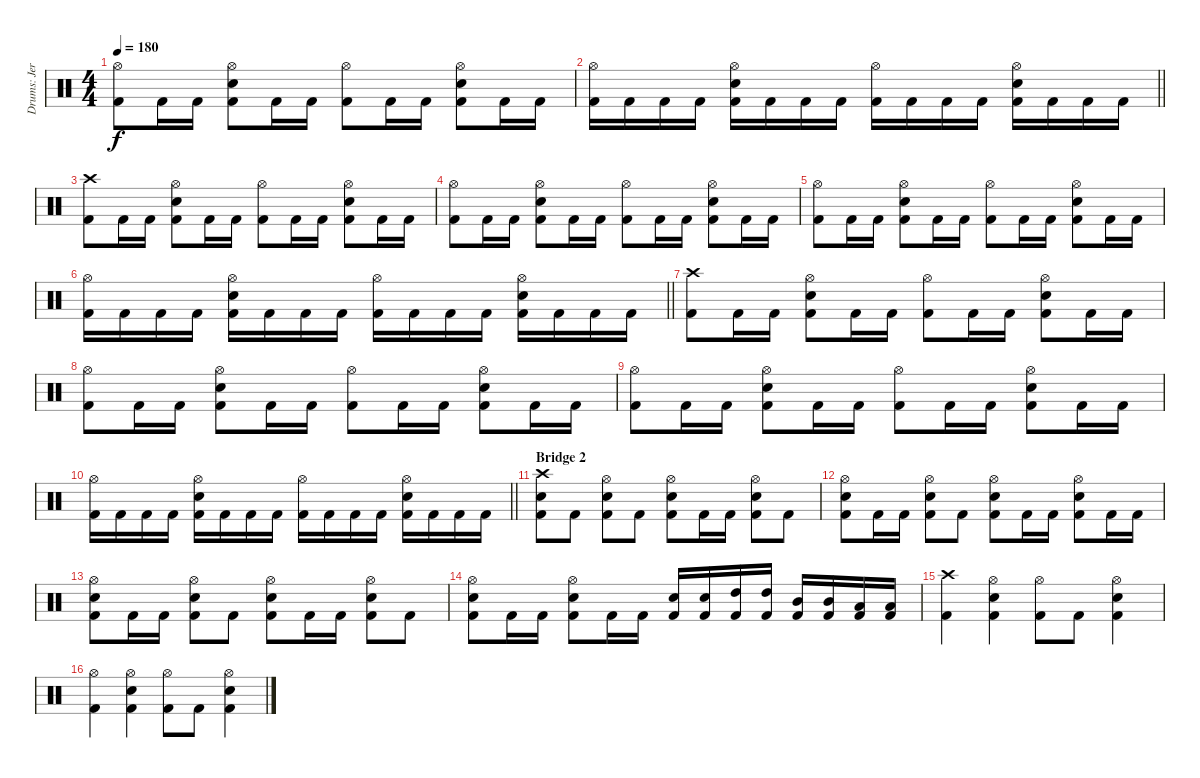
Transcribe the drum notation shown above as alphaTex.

\track ("Drums: Jere Luokkamäki" "Drums: Jer") {instrument percussion}
\staff {score}
\articulation defaults
\ts (4 4)
\tempo 180
\clef neutral
\ks aminor
("Hi-Hat (open)" "Kick (hit) 2").8{dy f} "Kick (hit) 2".16 "Kick (hit) 2".16 ("Hi-Hat (open)" "Electric Snare (hit)" "Kick (hit) 2").8 "Kick (hit) 2".16 "Kick (hit) 2".16 ("Hi-Hat (open)" "Kick (hit) 2").8 "Kick (hit) 2".16 "Kick (hit) 2".16 ("Hi-Hat (open)" "Electric Snare (hit)" "Kick (hit) 2").8 "Kick (hit) 2".16 "Kick (hit) 2".16 |
\barLineRight lightlight
("Hi-Hat (open)" "Kick (hit) 2").16 "Kick (hit) 2".16 "Kick (hit) 2".16 "Kick (hit) 2".16 ("Hi-Hat (open)" "Electric Snare (hit)" "Kick (hit) 2").16 "Kick (hit) 2".16 "Kick (hit) 2".16 "Kick (hit) 2".16 ("Hi-Hat (open)" "Kick (hit) 2").16 "Kick (hit) 2".16 "Kick (hit) 2".16 "Kick (hit) 2".16 ("Hi-Hat (open)" "Electric Snare (hit)" "Kick (hit) 2").16 "Kick (hit) 2".16 "Kick (hit) 2".16 "Kick (hit) 2".16 |
("Crash high (hit)" "Kick (hit) 2").8 "Kick (hit) 2".16 "Kick (hit) 2".16 ("Hi-Hat (open)" "Electric Snare (hit)" "Kick (hit) 2").8 "Kick (hit) 2".16 "Kick (hit) 2".16 ("Hi-Hat (open)" "Kick (hit) 2").8 "Kick (hit) 2".16 "Kick (hit) 2".16 ("Hi-Hat (open)" "Electric Snare (hit)" "Kick (hit) 2").8 "Kick (hit) 2".16 "Kick (hit) 2".16 |
("Hi-Hat (open)" "Kick (hit) 2").8 "Kick (hit) 2".16 "Kick (hit) 2".16 ("Hi-Hat (open)" "Electric Snare (hit)" "Kick (hit) 2").8 "Kick (hit) 2".16 "Kick (hit) 2".16 ("Hi-Hat (open)" "Kick (hit) 2").8 "Kick (hit) 2".16 "Kick (hit) 2".16 ("Hi-Hat (open)" "Electric Snare (hit)" "Kick (hit) 2").8 "Kick (hit) 2".16 "Kick (hit) 2".16 |
("Hi-Hat (open)" "Kick (hit) 2").8 "Kick (hit) 2".16 "Kick (hit) 2".16 ("Hi-Hat (open)" "Electric Snare (hit)" "Kick (hit) 2").8 "Kick (hit) 2".16 "Kick (hit) 2".16 ("Hi-Hat (open)" "Kick (hit) 2").8 "Kick (hit) 2".16 "Kick (hit) 2".16 ("Hi-Hat (open)" "Electric Snare (hit)" "Kick (hit) 2").8 "Kick (hit) 2".16 "Kick (hit) 2".16 |
\barLineRight lightlight
("Hi-Hat (open)" "Kick (hit) 2").16 "Kick (hit) 2".16 "Kick (hit) 2".16 "Kick (hit) 2".16 ("Hi-Hat (open)" "Electric Snare (hit)" "Kick (hit) 2").16 "Kick (hit) 2".16 "Kick (hit) 2".16 "Kick (hit) 2".16 ("Hi-Hat (open)" "Kick (hit) 2").16 "Kick (hit) 2".16 "Kick (hit) 2".16 "Kick (hit) 2".16 ("Hi-Hat (open)" "Electric Snare (hit)" "Kick (hit) 2").16 "Kick (hit) 2".16 "Kick (hit) 2".16 "Kick (hit) 2".16 |
("Crash high (hit)" "Kick (hit) 2").8 "Kick (hit) 2".16 "Kick (hit) 2".16 ("Hi-Hat (open)" "Electric Snare (hit)" "Kick (hit) 2").8 "Kick (hit) 2".16 "Kick (hit) 2".16 ("Hi-Hat (open)" "Kick (hit) 2").8 "Kick (hit) 2".16 "Kick (hit) 2".16 ("Hi-Hat (open)" "Electric Snare (hit)" "Kick (hit) 2").8 "Kick (hit) 2".16 "Kick (hit) 2".16 |
("Hi-Hat (open)" "Kick (hit) 2").8 "Kick (hit) 2".16 "Kick (hit) 2".16 ("Hi-Hat (open)" "Electric Snare (hit)" "Kick (hit) 2").8 "Kick (hit) 2".16 "Kick (hit) 2".16 ("Hi-Hat (open)" "Kick (hit) 2").8 "Kick (hit) 2".16 "Kick (hit) 2".16 ("Hi-Hat (open)" "Electric Snare (hit)" "Kick (hit) 2").8 "Kick (hit) 2".16 "Kick (hit) 2".16 |
("Hi-Hat (open)" "Kick (hit) 2").8 "Kick (hit) 2".16 "Kick (hit) 2".16 ("Hi-Hat (open)" "Electric Snare (hit)" "Kick (hit) 2").8 "Kick (hit) 2".16 "Kick (hit) 2".16 ("Hi-Hat (open)" "Kick (hit) 2").8 "Kick (hit) 2".16 "Kick (hit) 2".16 ("Hi-Hat (open)" "Electric Snare (hit)" "Kick (hit) 2").8 "Kick (hit) 2".16 "Kick (hit) 2".16 |
\barLineRight lightlight
("Hi-Hat (open)" "Kick (hit) 2").16 "Kick (hit) 2".16 "Kick (hit) 2".16 "Kick (hit) 2".16 ("Hi-Hat (open)" "Electric Snare (hit)" "Kick (hit) 2").16 "Kick (hit) 2".16 "Kick (hit) 2".16 "Kick (hit) 2".16 ("Hi-Hat (open)" "Kick (hit) 2").16 "Kick (hit) 2".16 "Kick (hit) 2".16 "Kick (hit) 2".16 ("Hi-Hat (open)" "Electric Snare (hit)" "Kick (hit) 2").16 "Kick (hit) 2".16 "Kick (hit) 2".16 "Kick (hit) 2".16 |
\section ("" "Bridge 2")
("Crash high (hit)" "Electric Snare (hit)" "Kick (hit) 2").8 "Kick (hit) 2".8 ("Hi-Hat (open)" "Electric Snare (hit)" "Kick (hit) 2").8 "Kick (hit) 2".8 ("Hi-Hat (open)" "Electric Snare (hit)" "Kick (hit) 2").8 "Kick (hit) 2".16 "Kick (hit) 2".16 ("Hi-Hat (open)" "Electric Snare (hit)" "Kick (hit) 2").8 "Kick (hit) 2".8 |
("Hi-Hat (open)" "Electric Snare (hit)" "Kick (hit) 2").8 "Kick (hit) 2".16 "Kick (hit) 2".16 ("Hi-Hat (open)" "Electric Snare (hit)" "Kick (hit) 2").8 "Kick (hit) 2".8 ("Hi-Hat (open)" "Electric Snare (hit)" "Kick (hit) 2").8 "Kick (hit) 2".16 "Kick (hit) 2".16 ("Hi-Hat (open)" "Electric Snare (hit)" "Kick (hit) 2").8 "Kick (hit) 2".16 "Kick (hit) 2".16 |
("Hi-Hat (open)" "Electric Snare (hit)" "Kick (hit) 2").8 "Kick (hit) 2".16 "Kick (hit) 2".16 ("Hi-Hat (open)" "Electric Snare (hit)" "Kick (hit) 2").8 "Kick (hit) 2".8 ("Hi-Hat (open)" "Electric Snare (hit)" "Kick (hit) 2").8 "Kick (hit) 2".16 "Kick (hit) 2".16 ("Hi-Hat (open)" "Electric Snare (hit)" "Kick (hit) 2").8 "Kick (hit) 2".8 |
("Hi-Hat (open)" "Electric Snare (hit)" "Kick (hit) 2").8 "Kick (hit) 2".16 "Kick (hit) 2".16 ("Hi-Hat (open)" "Electric Snare (hit)" "Kick (hit) 2").8 "Kick (hit) 2".16 "Kick (hit) 2".16 ("Electric Snare (hit)" "Kick (hit) 2").16 ("Electric Snare (hit)" "Kick (hit) 2").16 ("High Tom (hit)" "Kick (hit) 2").16 ("High Tom (hit)" "Kick (hit) 2").16 ("Mid Tom (hit)" "Kick (hit) 2").16 ("Mid Tom (hit)" "Kick (hit) 2").16 ("Low Tom (hit)" "Kick (hit) 2").16 ("Low Tom (hit)" "Kick (hit) 2").16 |
("Crash high (hit)" "Kick (hit) 2").4 ("Hi-Hat (open)" "Electric Snare (hit)" "Kick (hit) 2").4 ("Hi-Hat (open)" "Kick (hit) 2").8 "Kick (hit) 2".8 ("Hi-Hat (open)" "Electric Snare (hit)" "Kick (hit) 2").4 |
("Hi-Hat (open)" "Kick (hit) 2").4 ("Hi-Hat (open)" "Electric Snare (hit)" "Kick (hit) 2").4 ("Hi-Hat (open)" "Kick (hit) 2").8 "Kick (hit) 2".8 ("Hi-Hat (open)" "Electric Snare (hit)" "Kick (hit) 2").4
